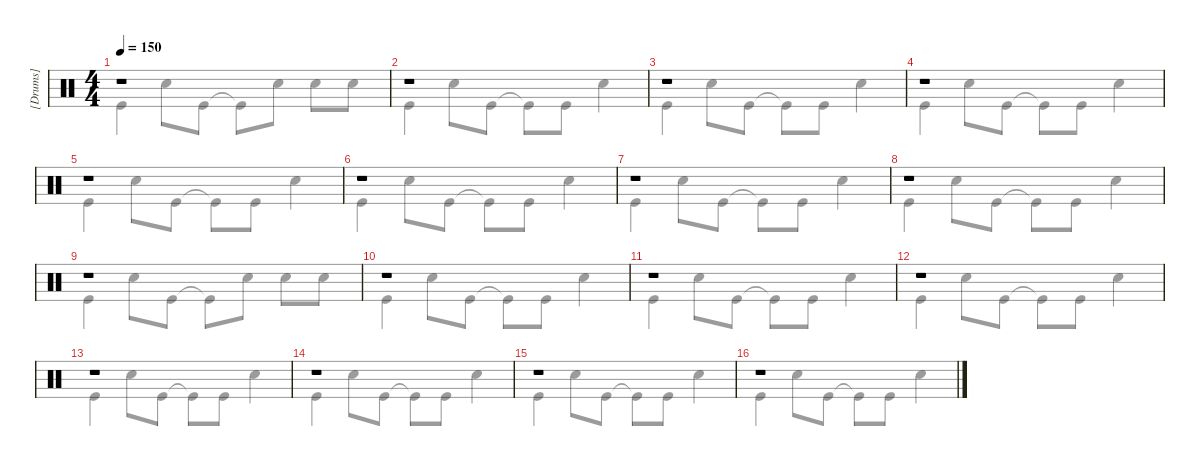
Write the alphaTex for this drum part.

\hideDynamics
\bracketExtendMode groupsimilarinstruments
\firstSystemTrackNameMode fullname
\otherSystemsTrackNameMode fullname
\otherSystemsTrackNameOrientation horizontal
\track ("[Drums]" "Drums") {instrument percussion}
\staff {score}
\articulation defaults
\voice
\ts (4 4)
\tempo 150
\clef neutral
\ks c
r.1{dy mf} |
r.1 |
r.1 |
r.1 |
r.1 |
r.1 |
r.1 |
r.1 |
r.1 |
r.1 |
r.1 |
r.1 |
r.1 |
r.1 |
r.1 |
r.1
\voice
\clef neutral
\ottava regular
\simile none
\ks c "Kick (hit)".4{dy f} "Snare (hit) 2".8 "Kick (hit)".8 "Kick (hit)"{t}.8 "Snare (hit) 2".8 "Snare (hit) 2".8 "Snare (hit) 2".8
|
"Kick (hit)".4 "Snare (hit) 2".8 "Kick (hit)".8 "Kick (hit)"{t}.8 "Kick (hit)".8 "Snare (hit) 2".4 |
"Kick (hit)".4 "Snare (hit) 2".8 "Kick (hit)".8 "Kick (hit)"{t}.8 "Kick (hit)".8 "Snare (hit) 2".4 |
"Kick (hit)".4 "Snare (hit) 2".8 "Kick (hit)".8 "Kick (hit)"{t}.8 "Kick (hit)".8 "Snare (hit) 2".4 |
"Kick (hit)".4 "Snare (hit) 2".8 "Kick (hit)".8 "Kick (hit)"{t}.8 "Kick (hit)".8 "Snare (hit) 2".4 |
"Kick (hit)".4 "Snare (hit) 2".8 "Kick (hit)".8 "Kick (hit)"{t}.8 "Kick (hit)".8 "Snare (hit) 2".4 |
"Kick (hit)".4 "Snare (hit) 2".8 "Kick (hit)".8 "Kick (hit)"{t}.8 "Kick (hit)".8 "Snare (hit) 2".4 |
"Kick (hit)".4 "Snare (hit) 2".8 "Kick (hit)".8 "Kick (hit)"{t}.8 "Kick (hit)".8 "Snare (hit) 2".4 |
"Kick (hit)".4 "Snare (hit) 2".8 "Kick (hit)".8 "Kick (hit)"{t}.8 "Snare (hit) 2".8 "Snare (hit) 2".8 "Snare (hit) 2".8 |
"Kick (hit)".4 "Snare (hit) 2".8 "Kick (hit)".8 "Kick (hit)"{t}.8 "Kick (hit)".8 "Snare (hit) 2".4 |
"Kick (hit)".4 "Snare (hit) 2".8 "Kick (hit)".8 "Kick (hit)"{t}.8 "Kick (hit)".8 "Snare (hit) 2".4 |
"Kick (hit)".4 "Snare (hit) 2".8 "Kick (hit)".8 "Kick (hit)"{t}.8 "Kick (hit)".8 "Snare (hit) 2".4 |
"Kick (hit)".4 "Snare (hit) 2".8 "Kick (hit)".8 "Kick (hit)"{t}.8 "Kick (hit)".8 "Snare (hit) 2".4 |
"Kick (hit)".4 "Snare (hit) 2".8 "Kick (hit)".8 "Kick (hit)"{t}.8 "Kick (hit)".8 "Snare (hit) 2".4 |
"Kick (hit)".4 "Snare (hit) 2".8 "Kick (hit)".8 "Kick (hit)"{t}.8 "Kick (hit)".8 "Snare (hit) 2".4 |
"Kick (hit)".4 "Snare (hit) 2".8 "Kick (hit)".8 "Kick (hit)"{t}.8 "Kick (hit)".8 "Snare (hit) 2".4
